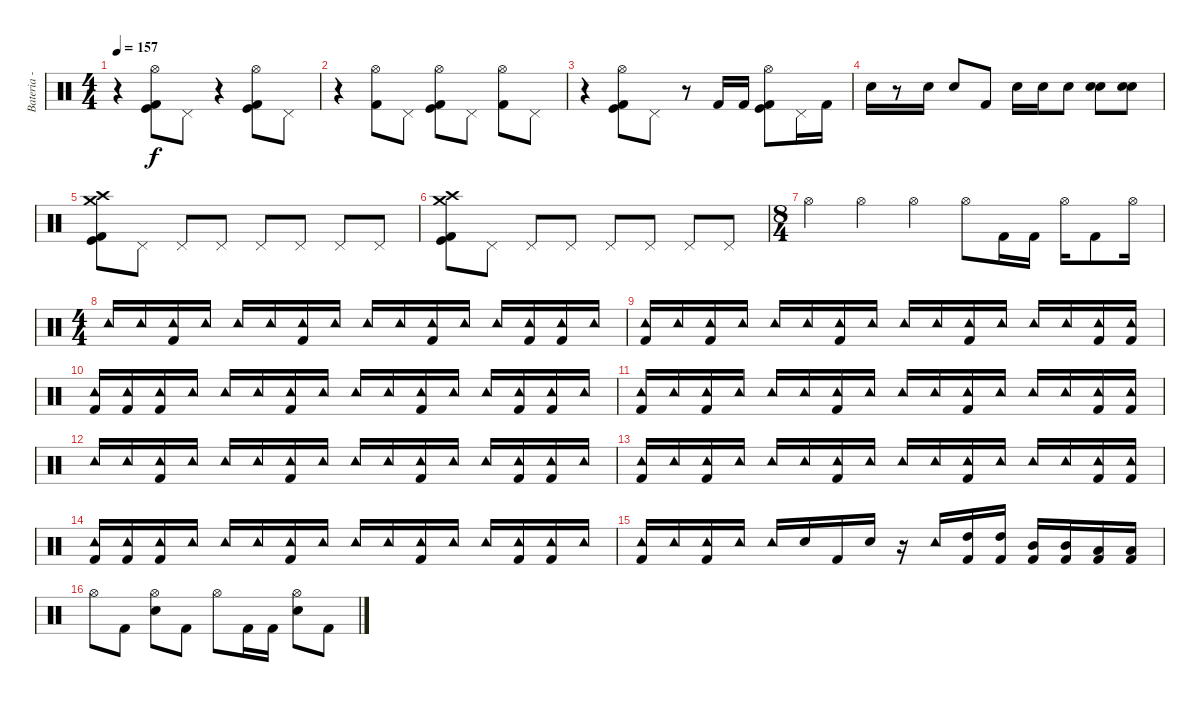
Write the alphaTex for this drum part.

\track ("Bateria - Optional" "Bateria - ") {instrument percussion}
\staff {score}
\articulation defaults
\ts (4 4)
\tempo 157
\clef neutral
\ks c
r.4{dy f} ("Hi-Hat (open)" "Kick (hit)" "Kick (hit) 2").8 "Pedal Hi-Hat (hit)".8 r.4 ("Hi-Hat (open)" "Kick (hit)" "Kick (hit) 2").8 "Pedal Hi-Hat (hit)".8 |
r.4 ("Hi-Hat (open)" "Kick (hit) 2").8 "Pedal Hi-Hat (hit)".8 ("Hi-Hat (open)" "Kick (hit)" "Kick (hit) 2").8 "Pedal Hi-Hat (hit)".8 ("Hi-Hat (open)" "Kick (hit) 2").8 "Pedal Hi-Hat (hit)".8 |
r.4 ("Hi-Hat (open)" "Kick (hit)" "Kick (hit) 2").8 "Pedal Hi-Hat (hit)".8 r.8 "Kick (hit) 2".16 "Kick (hit) 2".16 ("Hi-Hat (open)" "Kick (hit)" "Kick (hit) 2").8 "Pedal Hi-Hat (hit)".16 "Kick (hit) 2".16 |
"Snare (hit) 2".16 r.8 "Snare (hit) 2".16 "Snare (hit) 2".8 "Kick (hit) 2".8 "Snare (hit) 2".16 "Snare (hit) 2".16 "Snare (hit) 2".8 ("Snare (hit) 2" "Snare (hit) 2").8 ("Snare (hit) 2" "Snare (hit) 2").8 |
("Crash medium (hit)" "Crash high (hit)" "Kick (hit)" "Kick (hit) 2").8 "Pedal Hi-Hat (hit)".8 "Pedal Hi-Hat (hit)".8 "Pedal Hi-Hat (hit)".8 "Pedal Hi-Hat (hit)".8 "Pedal Hi-Hat (hit)".8 "Pedal Hi-Hat (hit)".8 "Pedal Hi-Hat (hit)".8 |
("Crash medium (hit)" "Crash high (hit)" "Kick (hit)" "Kick (hit) 2").8 "Pedal Hi-Hat (hit)".8 "Pedal Hi-Hat (hit)".8 "Pedal Hi-Hat (hit)".8 "Pedal Hi-Hat (hit)".8 "Pedal Hi-Hat (hit)".8 "Pedal Hi-Hat (hit)".8 "Pedal Hi-Hat (hit)".8 |
\ts (8 4)
"Hi-Hat (open)".2 "Hi-Hat (open)".2 "Hi-Hat (open)".2 "Hi-Hat (open)".8 "Kick (hit) 2".16 "Kick (hit) 2".16 "Hi-Hat (open)".16 "Kick (hit) 2".8 "Hi-Hat (open)".16 |
\ts (4 4)
"Tambourine (hit)".16 "Tambourine (hit)".16 ("Tambourine (hit)" "Kick (hit) 2").16 "Tambourine (hit)".16 "Tambourine (hit)".16 "Tambourine (hit)".16 ("Tambourine (hit)" "Kick (hit) 2").16 "Tambourine (hit)".16 "Tambourine (hit)".16 "Tambourine (hit)".16 ("Tambourine (hit)" "Kick (hit) 2").16 "Tambourine (hit)".16 "Tambourine (hit)".16 ("Tambourine (hit)" "Kick (hit) 2").16 ("Tambourine (hit)" "Kick (hit) 2").16 "Tambourine (hit)".16 |
("Tambourine (hit)" "Kick (hit) 2").16 "Tambourine (hit)".16 ("Tambourine (hit)" "Kick (hit) 2").16 "Tambourine (hit)".16 "Tambourine (hit)".16 "Tambourine (hit)".16 ("Tambourine (hit)" "Kick (hit) 2").16 "Tambourine (hit)".16 "Tambourine (hit)".16 "Tambourine (hit)".16 ("Tambourine (hit)" "Kick (hit) 2").16 "Tambourine (hit)".16 "Tambourine (hit)".16 "Tambourine (hit)".16 ("Tambourine (hit)" "Kick (hit) 2").16 ("Tambourine (hit)" "Kick (hit) 2").16 |
("Tambourine (hit)" "Kick (hit) 2").16 ("Tambourine (hit)" "Kick (hit) 2").16 ("Tambourine (hit)" "Kick (hit) 2").16 "Tambourine (hit)".16 "Tambourine (hit)".16 "Tambourine (hit)".16 ("Tambourine (hit)" "Kick (hit) 2").16 "Tambourine (hit)".16 "Tambourine (hit)".16 "Tambourine (hit)".16 ("Tambourine (hit)" "Kick (hit) 2").16 "Tambourine (hit)".16 "Tambourine (hit)".16 ("Tambourine (hit)" "Kick (hit) 2").16 ("Tambourine (hit)" "Kick (hit) 2").16 "Tambourine (hit)".16 |
("Tambourine (hit)" "Kick (hit) 2").16 "Tambourine (hit)".16 ("Tambourine (hit)" "Kick (hit) 2").16 "Tambourine (hit)".16 "Tambourine (hit)".16 "Tambourine (hit)".16 ("Tambourine (hit)" "Kick (hit) 2").16 "Tambourine (hit)".16 "Tambourine (hit)".16 "Tambourine (hit)".16 ("Tambourine (hit)" "Kick (hit) 2").16 "Tambourine (hit)".16 "Tambourine (hit)".16 "Tambourine (hit)".16 ("Tambourine (hit)" "Kick (hit) 2").16 ("Tambourine (hit)" "Kick (hit) 2").16 |
"Tambourine (hit)".16 "Tambourine (hit)".16 ("Tambourine (hit)" "Kick (hit) 2").16 "Tambourine (hit)".16 "Tambourine (hit)".16 "Tambourine (hit)".16 ("Tambourine (hit)" "Kick (hit) 2").16 "Tambourine (hit)".16 "Tambourine (hit)".16 "Tambourine (hit)".16 ("Tambourine (hit)" "Kick (hit) 2").16 "Tambourine (hit)".16 "Tambourine (hit)".16 ("Tambourine (hit)" "Kick (hit) 2").16 ("Tambourine (hit)" "Kick (hit) 2").16 "Tambourine (hit)".16 |
("Tambourine (hit)" "Kick (hit) 2").16 "Tambourine (hit)".16 ("Tambourine (hit)" "Kick (hit) 2").16 "Tambourine (hit)".16 "Tambourine (hit)".16 "Tambourine (hit)".16 ("Tambourine (hit)" "Kick (hit) 2").16 "Tambourine (hit)".16 "Tambourine (hit)".16 "Tambourine (hit)".16 ("Tambourine (hit)" "Kick (hit) 2").16 "Tambourine (hit)".16 "Tambourine (hit)".16 "Tambourine (hit)".16 ("Tambourine (hit)" "Kick (hit) 2").16 ("Tambourine (hit)" "Kick (hit) 2").16 |
("Tambourine (hit)" "Kick (hit) 2").16 ("Tambourine (hit)" "Kick (hit) 2").16 ("Tambourine (hit)" "Kick (hit) 2").16 "Tambourine (hit)".16 "Tambourine (hit)".16 "Tambourine (hit)".16 ("Tambourine (hit)" "Kick (hit) 2").16 "Tambourine (hit)".16 "Tambourine (hit)".16 "Tambourine (hit)".16 ("Tambourine (hit)" "Kick (hit) 2").16 "Tambourine (hit)".16 "Tambourine (hit)".16 ("Tambourine (hit)" "Kick (hit) 2").16 ("Tambourine (hit)" "Kick (hit) 2").16 "Tambourine (hit)".16 |
("Tambourine (hit)" "Kick (hit) 2").16 "Tambourine (hit)".16 ("Tambourine (hit)" "Kick (hit) 2").16 "Tambourine (hit)".16 "Tambourine (hit)".16 "Snare (hit) 2".16 "Kick (hit) 2".16 "Snare (hit) 2".16 r.16 "Tambourine (hit)".16 ("High Tom (hit)" "Kick (hit) 2").16 ("High Tom (hit)" "Kick (hit) 2").16 ("Mid Tom (hit)" "Kick (hit) 2").16 ("Mid Tom (hit)" "Kick (hit) 2").16 ("Low Tom (hit)" "Kick (hit) 2").16 ("Low Tom (hit)" "Kick (hit) 2").16 |
"Hi-Hat (open)".8 "Kick (hit) 2".8 ("Hi-Hat (open)" "Electric Snare (hit)").8 "Kick (hit) 2".8 "Hi-Hat (open)".8 "Kick (hit) 2".16 "Kick (hit) 2".16 ("Hi-Hat (open)" "Electric Snare (hit)").8 "Kick (hit) 2".8
